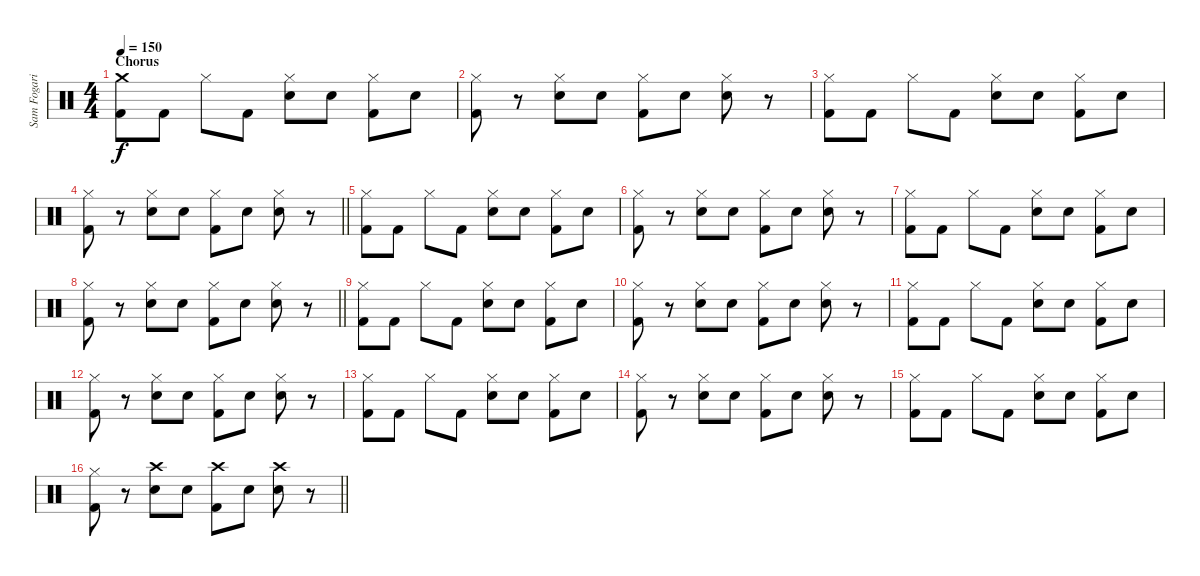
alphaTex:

\track ("Sam Fogarino" "Sam Fogari") {instrument percussion}
\staff {score}
\articulation defaults
\ts (4 4)
\section ("" "Chorus")
\tempo 150
\clef neutral
\ks c
("Crash medium (hit)" "Kick (hit) 2").8{dy f} "Kick (hit) 2".8 "Hi-Hat (closed)".8 "Kick (hit) 2".8 ("Hi-Hat (closed)" "Electric Snare (hit)").8 "Electric Snare (hit)".8 ("Hi-Hat (closed)" "Kick (hit) 2").8 "Electric Snare (hit)".8 |
("Hi-Hat (closed)" "Kick (hit) 2").8 r.8 ("Hi-Hat (closed)" "Electric Snare (hit)").8 "Electric Snare (hit)".8 ("Hi-Hat (closed)" "Kick (hit) 2").8 "Electric Snare (hit)".8 ("Hi-Hat (closed)" "Electric Snare (hit)").8 r.8 |
("Hi-Hat (closed)" "Kick (hit) 2").8 "Kick (hit) 2".8 "Hi-Hat (closed)".8 "Kick (hit) 2".8 ("Hi-Hat (closed)" "Electric Snare (hit)").8 "Electric Snare (hit)".8 ("Hi-Hat (closed)" "Kick (hit) 2").8 "Electric Snare (hit)".8 |
\barLineRight lightlight
("Hi-Hat (closed)" "Kick (hit) 2").8 r.8 ("Hi-Hat (closed)" "Electric Snare (hit)").8 "Electric Snare (hit)".8 ("Hi-Hat (closed)" "Kick (hit) 2").8 "Electric Snare (hit)".8 ("Hi-Hat (closed)" "Electric Snare (hit)").8 r.8 |
("Hi-Hat (closed)" "Kick (hit) 2").8 "Kick (hit) 2".8 "Hi-Hat (closed)".8 "Kick (hit) 2".8 ("Hi-Hat (closed)" "Electric Snare (hit)").8 "Electric Snare (hit)".8 ("Hi-Hat (closed)" "Kick (hit) 2").8 "Electric Snare (hit)".8 |
("Hi-Hat (closed)" "Kick (hit) 2").8 r.8 ("Hi-Hat (closed)" "Electric Snare (hit)").8 "Electric Snare (hit)".8 ("Hi-Hat (closed)" "Kick (hit) 2").8 "Electric Snare (hit)".8 ("Hi-Hat (closed)" "Electric Snare (hit)").8 r.8 |
("Hi-Hat (closed)" "Kick (hit) 2").8 "Kick (hit) 2".8 "Hi-Hat (closed)".8 "Kick (hit) 2".8 ("Hi-Hat (closed)" "Electric Snare (hit)").8 "Electric Snare (hit)".8 ("Hi-Hat (closed)" "Kick (hit) 2").8 "Electric Snare (hit)".8 |
\barLineRight lightlight
("Hi-Hat (closed)" "Kick (hit) 2").8 r.8 ("Hi-Hat (closed)" "Electric Snare (hit)").8 "Electric Snare (hit)".8 ("Hi-Hat (closed)" "Kick (hit) 2").8 "Electric Snare (hit)".8 ("Hi-Hat (closed)" "Electric Snare (hit)").8 r.8 |
("Hi-Hat (closed)" "Kick (hit) 2").8 "Kick (hit) 2".8 "Hi-Hat (closed)".8 "Kick (hit) 2".8 ("Hi-Hat (closed)" "Electric Snare (hit)").8 "Electric Snare (hit)".8 ("Hi-Hat (closed)" "Kick (hit) 2").8 "Electric Snare (hit)".8 |
("Hi-Hat (closed)" "Kick (hit) 2").8 r.8 ("Hi-Hat (closed)" "Electric Snare (hit)").8 "Electric Snare (hit)".8 ("Hi-Hat (closed)" "Kick (hit) 2").8 "Electric Snare (hit)".8 ("Hi-Hat (closed)" "Electric Snare (hit)").8 r.8 |
("Hi-Hat (closed)" "Kick (hit) 2").8 "Kick (hit) 2".8 "Hi-Hat (closed)".8 "Kick (hit) 2".8 ("Hi-Hat (closed)" "Electric Snare (hit)").8 "Electric Snare (hit)".8 ("Hi-Hat (closed)" "Kick (hit) 2").8 "Electric Snare (hit)".8 |
("Hi-Hat (closed)" "Kick (hit) 2").8 r.8 ("Hi-Hat (closed)" "Electric Snare (hit)").8 "Electric Snare (hit)".8 ("Hi-Hat (closed)" "Kick (hit) 2").8 "Electric Snare (hit)".8 ("Hi-Hat (closed)" "Electric Snare (hit)").8 r.8 |
("Hi-Hat (closed)" "Kick (hit) 2").8 "Kick (hit) 2".8 "Hi-Hat (closed)".8 "Kick (hit) 2".8 ("Hi-Hat (closed)" "Electric Snare (hit)").8 "Electric Snare (hit)".8 ("Hi-Hat (closed)" "Kick (hit) 2").8 "Electric Snare (hit)".8 |
("Hi-Hat (closed)" "Kick (hit) 2").8 r.8 ("Hi-Hat (closed)" "Electric Snare (hit)").8 "Electric Snare (hit)".8 ("Hi-Hat (closed)" "Kick (hit) 2").8 "Electric Snare (hit)".8 ("Hi-Hat (closed)" "Electric Snare (hit)").8 r.8 |
("Hi-Hat (closed)" "Kick (hit) 2").8 "Kick (hit) 2".8 "Hi-Hat (closed)".8 "Kick (hit) 2".8 ("Hi-Hat (closed)" "Electric Snare (hit)").8 "Electric Snare (hit)".8 ("Hi-Hat (closed)" "Kick (hit) 2").8 "Electric Snare (hit)".8 |
\barLineRight lightlight
("Hi-Hat (closed)" "Kick (hit) 2").8 r.8 ("Crash high (hit)" "Electric Snare (hit)").8 "Electric Snare (hit)".8 ("Crash high (hit)" "Kick (hit) 2").8 "Electric Snare (hit)".8 ("Crash high (hit)" "Electric Snare (hit)").8 r.8
